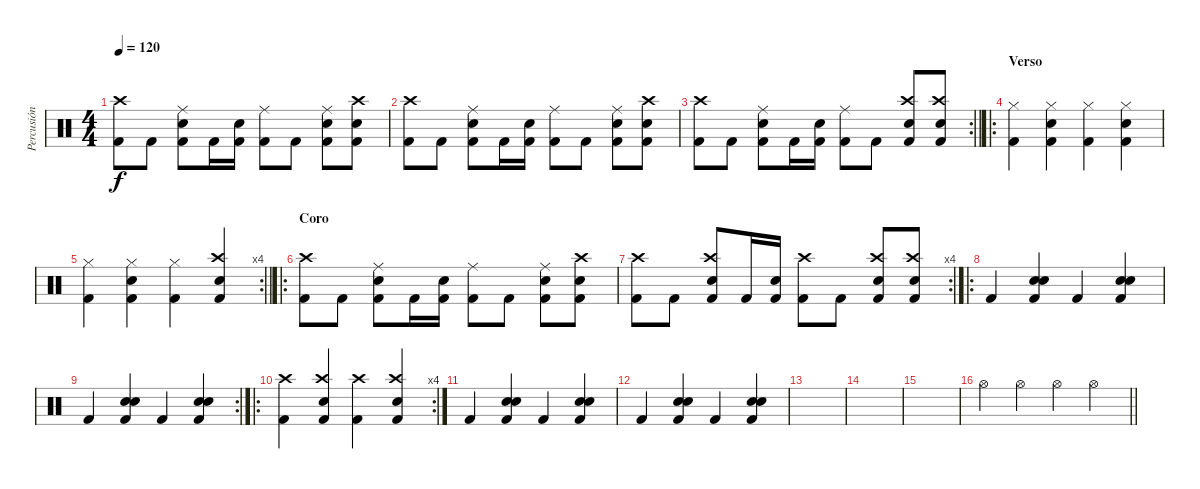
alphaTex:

\track ("Percusión" "Percusión") {instrument percussion}
\staff {score}
\articulation defaults
\ts (4 4)
\tempo 120
\clef neutral
\ks c
("Kick (hit) 2" "Crash high (hit)").8{dy f} "Kick (hit) 2".8 ("Kick (hit) 2" "Snare (hit) 2" "Ride (middle)").8 "Kick (hit) 2".16 ("Kick (hit) 2" "Snare (hit) 2").16 ("Kick (hit) 2" "Ride (middle)").8 "Kick (hit) 2".8 ("Kick (hit) 2" "Snare (hit) 2" "Ride (middle)").8 ("Kick (hit) 2" "Snare (hit) 2" "Crash high (hit)").8 |
("Kick (hit) 2" "Crash high (hit)").8 "Kick (hit) 2".8 ("Kick (hit) 2" "Snare (hit) 2" "Ride (middle)").8 "Kick (hit) 2".16 ("Kick (hit) 2" "Snare (hit) 2").16 ("Kick (hit) 2" "Ride (middle)").8 "Kick (hit) 2".8 ("Kick (hit) 2" "Snare (hit) 2" "Ride (middle)").8 ("Kick (hit) 2" "Snare (hit) 2" "Crash high (hit)").8 |
\rc 2
\barLineRight lightlight
("Kick (hit) 2" "Crash high (hit)").8 "Kick (hit) 2".8 ("Kick (hit) 2" "Snare (hit) 2" "Ride (middle)").8 "Kick (hit) 2".16 ("Kick (hit) 2" "Snare (hit) 2").16 ("Kick (hit) 2" "Ride (middle)").8 "Kick (hit) 2".8 ("Kick (hit) 2" "Snare (hit) 2" "Crash high (hit)").8 ("Kick (hit) 2" "Snare (hit) 2" "Crash high (hit)").8 |
\ro
\section ("" "Verso")
("Kick (hit) 2" "Hi-Hat (closed)").4 ("Kick (hit) 2" "Snare (hit) 2" "Hi-Hat (closed)").4 ("Kick (hit) 2" "Hi-Hat (closed)").4 ("Kick (hit) 2" "Snare (hit) 2" "Hi-Hat (closed)").4 |
\rc 4
\barLineRight lightlight
("Kick (hit) 2" "Hi-Hat (closed)").4 ("Kick (hit) 2" "Snare (hit) 2" "Hi-Hat (closed)").4 ("Kick (hit) 2" "Hi-Hat (closed)").4 ("Kick (hit) 2" "Snare (hit) 2" "Crash high (hit)").4 |
\ro
\section ("" "Coro")
("Kick (hit) 2" "Crash high (hit)").8 "Kick (hit) 2".8 ("Kick (hit) 2" "Snare (hit) 2" "Ride (middle)").8 "Kick (hit) 2".16 ("Kick (hit) 2" "Snare (hit) 2").16 ("Kick (hit) 2" "Ride (middle)").8 "Kick (hit) 2".8 ("Kick (hit) 2" "Snare (hit) 2" "Ride (middle)").8 ("Kick (hit) 2" "Snare (hit) 2" "Crash high (hit)").8 |
\rc 4
("Kick (hit) 2" "Crash high (hit)").8 "Kick (hit) 2".8 ("Kick (hit) 2" "Snare (hit) 2" "Crash high (hit)").8 "Kick (hit) 2".16 ("Kick (hit) 2" "Snare (hit) 2").16 ("Kick (hit) 2" "Crash high (hit)").8 "Kick (hit) 2".8 ("Kick (hit) 2" "Snare (hit) 2" "Crash high (hit)").8 ("Kick (hit) 2" "Snare (hit) 2" "Crash high (hit)").8 |
\ro "Kick (hit) 2".4
("Kick (hit) 2" "Snare (hit) 2" "Snare (hit) 2").4 "Kick (hit) 2".4 ("Kick (hit) 2" "Snare (hit) 2" "Snare (hit) 2").4 |
\rc 2 "Kick (hit) 2".4
("Kick (hit) 2" "Snare (hit) 2" "Snare (hit) 2").4 "Kick (hit) 2".4 ("Kick (hit) 2" "Snare (hit) 2" "Snare (hit) 2").4 |
\ro
\rc 4
("Kick (hit) 2" "Crash high (hit)").4 ("Kick (hit) 2" "Snare (hit) 2" "Crash high (hit)").4 ("Kick (hit) 2" "Crash high (hit)").4 ("Kick (hit) 2" "Snare (hit) 2" "Crash high (hit)").4 |
"Kick (hit) 2".4 ("Kick (hit) 2" "Snare (hit) 2" "Snare (hit) 2").4 "Kick (hit) 2".4 ("Kick (hit) 2" "Snare (hit) 2" "Snare (hit) 2").4 |
"Kick (hit) 2".4 ("Kick (hit) 2" "Snare (hit) 2" "Snare (hit) 2").4 "Kick (hit) 2".4 ("Kick (hit) 2" "Snare (hit) 2" "Snare (hit) 2").4 |
|
|
|
\barLineRight lightlight "Hi-Hat (open)".4 "Hi-Hat (open)".4 "Hi-Hat (open)".4 "Hi-Hat (open)".4
